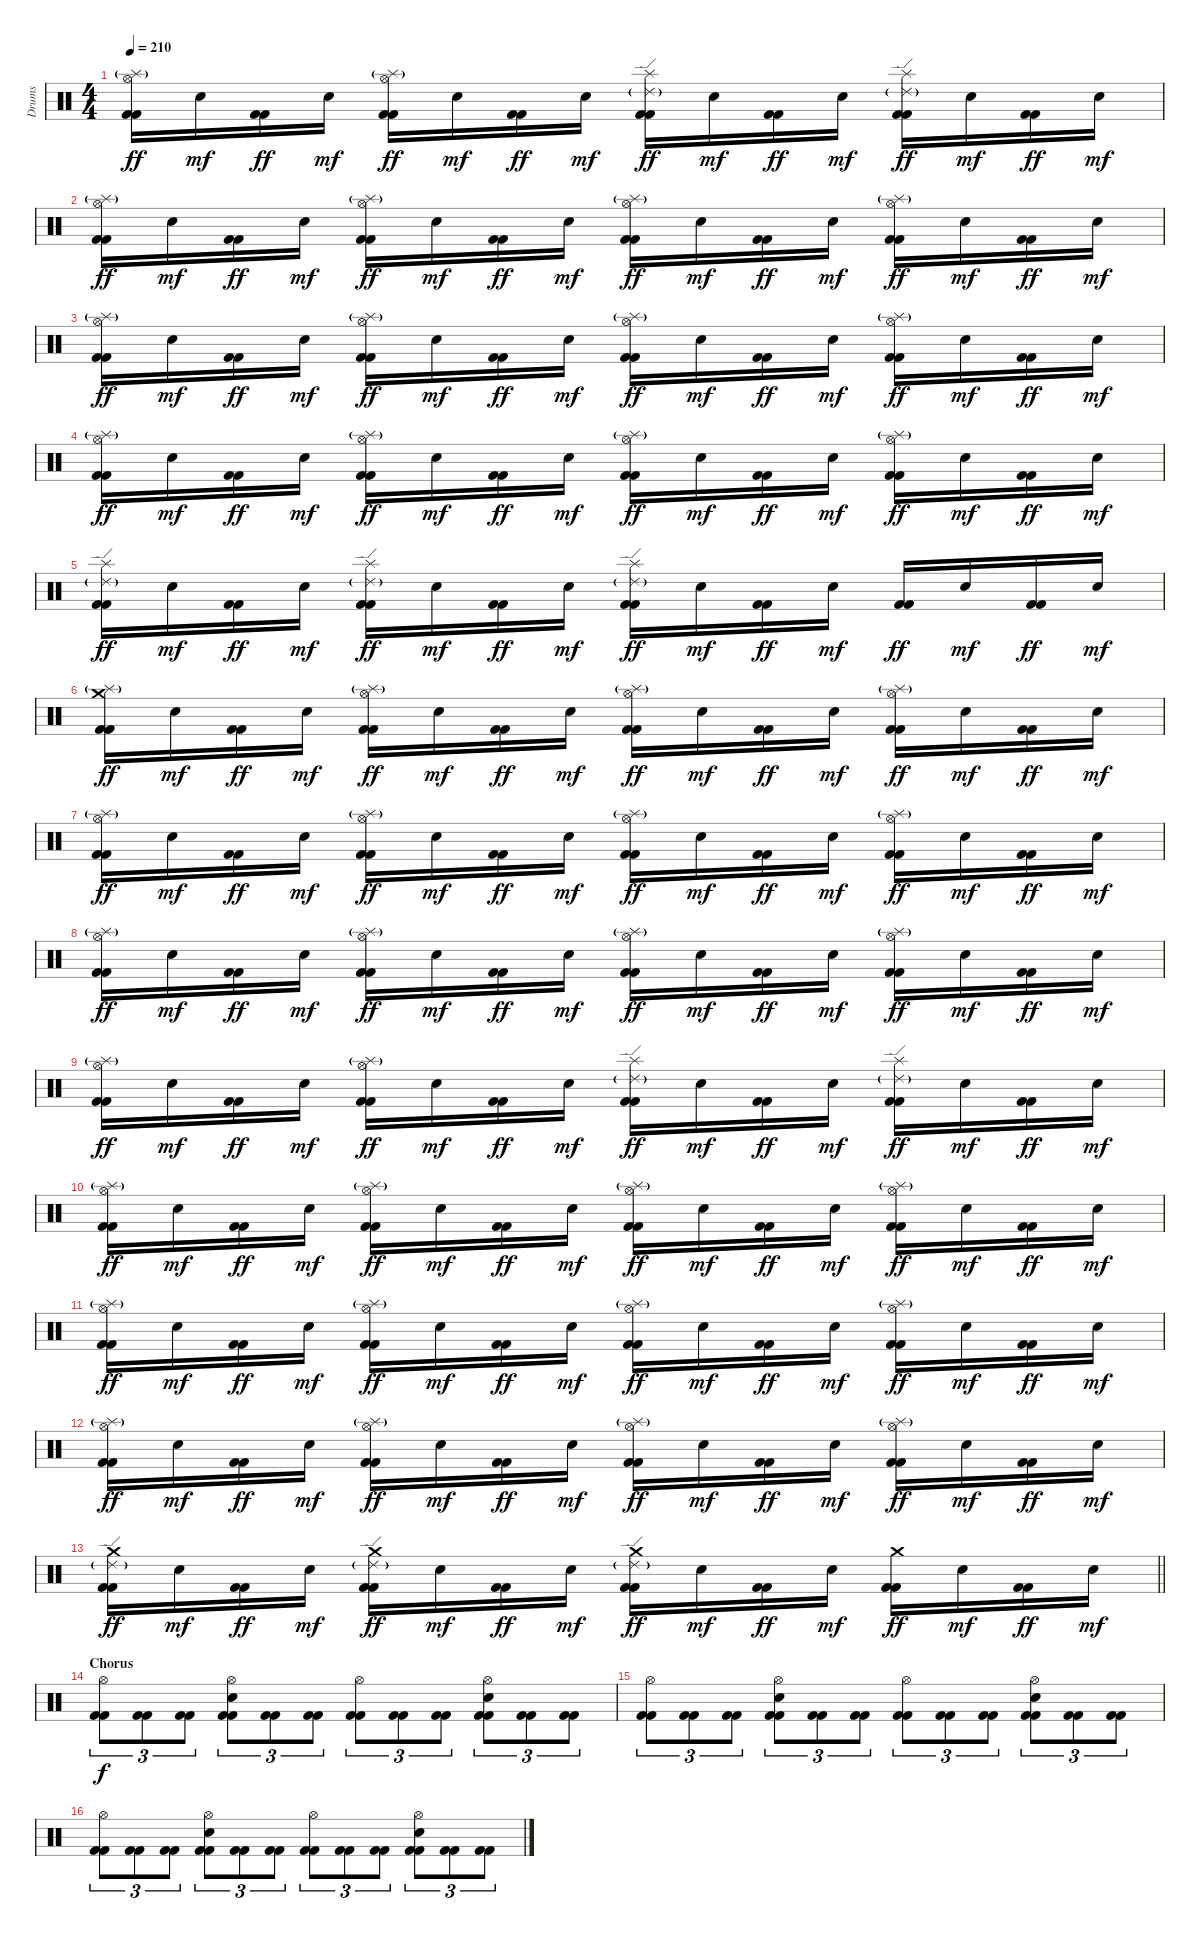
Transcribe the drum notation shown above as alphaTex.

\track ("Drums" "Drums") {instrument percussion}
\staff {score}
\articulation defaults
\ts (4 4)
\tempo 210
\clef neutral
\ks c
("Hi-Hat (open)" "Splash (hit)"{g} "Kick (hit) 2" "Kick (hit) 2").16{dy ff} "Snare (hit) 2".16{dy mf} ("Kick (hit) 2" "Kick (hit) 2").16{dy ff} "Snare (hit) 2".16{dy mf} ("Hi-Hat (open)" "Splash (hit)"{g} "Kick (hit) 2" "Kick (hit) 2").16{dy ff} "Snare (hit) 2".16{dy mf} ("Kick (hit) 2" "Kick (hit) 2").16{dy ff} "Snare (hit) 2".16{dy mf} ("Splash (hit)" "Ride (edge) 2"{g} "Kick (hit) 2" "Kick (hit) 2").16{dy ff} "Snare (hit) 2".16{dy mf} ("Kick (hit) 2" "Kick (hit) 2").16{dy ff} "Snare (hit) 2".16{dy mf} ("Splash (hit)" "Ride (edge) 2"{g} "Kick (hit) 2" "Kick (hit) 2").16{dy ff} "Snare (hit) 2".16{dy mf} ("Kick (hit) 2" "Kick (hit) 2").16{dy ff} "Snare (hit) 2".16{dy mf} |
("Hi-Hat (open)" "Splash (hit)"{g} "Kick (hit) 2" "Kick (hit) 2").16{dy ff} "Snare (hit) 2".16{dy mf} ("Kick (hit) 2" "Kick (hit) 2").16{dy ff} "Snare (hit) 2".16{dy mf} ("Hi-Hat (open)" "Splash (hit)"{g} "Kick (hit) 2" "Kick (hit) 2").16{dy ff} "Snare (hit) 2".16{dy mf} ("Kick (hit) 2" "Kick (hit) 2").16{dy ff} "Snare (hit) 2".16{dy mf} ("Hi-Hat (open)" "Splash (hit)"{g} "Kick (hit) 2" "Kick (hit) 2").16{dy ff} "Snare (hit) 2".16{dy mf} ("Kick (hit) 2" "Kick (hit) 2").16{dy ff} "Snare (hit) 2".16{dy mf} ("Hi-Hat (open)" "Splash (hit)"{g} "Kick (hit) 2" "Kick (hit) 2").16{dy ff} "Snare (hit) 2".16{dy mf} ("Kick (hit) 2" "Kick (hit) 2").16{dy ff} "Snare (hit) 2".16{dy mf} |
("Hi-Hat (open)" "Splash (hit)"{g} "Kick (hit) 2" "Kick (hit) 2").16{dy ff} "Snare (hit) 2".16{dy mf} ("Kick (hit) 2" "Kick (hit) 2").16{dy ff} "Snare (hit) 2".16{dy mf} ("Hi-Hat (open)" "Splash (hit)"{g} "Kick (hit) 2" "Kick (hit) 2").16{dy ff} "Snare (hit) 2".16{dy mf} ("Kick (hit) 2" "Kick (hit) 2").16{dy ff} "Snare (hit) 2".16{dy mf} ("Hi-Hat (open)" "Splash (hit)"{g} "Kick (hit) 2" "Kick (hit) 2").16{dy ff} "Snare (hit) 2".16{dy mf} ("Kick (hit) 2" "Kick (hit) 2").16{dy ff} "Snare (hit) 2".16{dy mf} ("Hi-Hat (open)" "Splash (hit)"{g} "Kick (hit) 2" "Kick (hit) 2").16{dy ff} "Snare (hit) 2".16{dy mf} ("Kick (hit) 2" "Kick (hit) 2").16{dy ff} "Snare (hit) 2".16{dy mf} |
("Hi-Hat (open)" "Splash (hit)"{g} "Kick (hit) 2" "Kick (hit) 2").16{dy ff} "Snare (hit) 2".16{dy mf} ("Kick (hit) 2" "Kick (hit) 2").16{dy ff} "Snare (hit) 2".16{dy mf} ("Hi-Hat (open)" "Splash (hit)"{g} "Kick (hit) 2" "Kick (hit) 2").16{dy ff} "Snare (hit) 2".16{dy mf} ("Kick (hit) 2" "Kick (hit) 2").16{dy ff} "Snare (hit) 2".16{dy mf} ("Hi-Hat (open)" "Splash (hit)"{g} "Kick (hit) 2" "Kick (hit) 2").16{dy ff} "Snare (hit) 2".16{dy mf} ("Kick (hit) 2" "Kick (hit) 2").16{dy ff} "Snare (hit) 2".16{dy mf} ("Hi-Hat (open)" "Splash (hit)"{g} "Kick (hit) 2" "Kick (hit) 2").16{dy ff} "Snare (hit) 2".16{dy mf} ("Kick (hit) 2" "Kick (hit) 2").16{dy ff} "Snare (hit) 2".16{dy mf} |
("Splash (hit)" "Ride (edge) 2"{g} "Kick (hit) 2" "Kick (hit) 2").16{dy ff} "Snare (hit) 2".16{dy mf} ("Kick (hit) 2" "Kick (hit) 2").16{dy ff} "Snare (hit) 2".16{dy mf} ("Splash (hit)" "Ride (edge) 2"{g} "Kick (hit) 2" "Kick (hit) 2").16{dy ff} "Snare (hit) 2".16{dy mf} ("Kick (hit) 2" "Kick (hit) 2").16{dy ff} "Snare (hit) 2".16{dy mf} ("Splash (hit)" "Ride (edge) 2"{g} "Kick (hit) 2" "Kick (hit) 2").16{dy ff} "Snare (hit) 2".16{dy mf} ("Kick (hit) 2" "Kick (hit) 2").16{dy ff} "Snare (hit) 2".16{dy mf} ("Kick (hit) 2" "Kick (hit) 2").16{dy ff} "Snare (hit) 2".16{dy mf} ("Kick (hit) 2" "Kick (hit) 2").16{dy ff} "Snare (hit) 2".16{dy mf} |
("Crash medium (hit)" "Splash (hit)"{g} "Kick (hit) 2" "Kick (hit) 2").16{dy ff} "Snare (hit) 2".16{dy mf} ("Kick (hit) 2" "Kick (hit) 2").16{dy ff} "Snare (hit) 2".16{dy mf} ("Hi-Hat (open)" "Splash (hit)"{g} "Kick (hit) 2" "Kick (hit) 2").16{dy ff} "Snare (hit) 2".16{dy mf} ("Kick (hit) 2" "Kick (hit) 2").16{dy ff} "Snare (hit) 2".16{dy mf} ("Hi-Hat (open)" "Splash (hit)"{g} "Kick (hit) 2" "Kick (hit) 2").16{dy ff} "Snare (hit) 2".16{dy mf} ("Kick (hit) 2" "Kick (hit) 2").16{dy ff} "Snare (hit) 2".16{dy mf} ("Hi-Hat (open)" "Splash (hit)"{g} "Kick (hit) 2" "Kick (hit) 2").16{dy ff} "Snare (hit) 2".16{dy mf} ("Kick (hit) 2" "Kick (hit) 2").16{dy ff} "Snare (hit) 2".16{dy mf} |
("Hi-Hat (open)" "Splash (hit)"{g} "Kick (hit) 2" "Kick (hit) 2").16{dy ff} "Snare (hit) 2".16{dy mf} ("Kick (hit) 2" "Kick (hit) 2").16{dy ff} "Snare (hit) 2".16{dy mf} ("Hi-Hat (open)" "Splash (hit)"{g} "Kick (hit) 2" "Kick (hit) 2").16{dy ff} "Snare (hit) 2".16{dy mf} ("Kick (hit) 2" "Kick (hit) 2").16{dy ff} "Snare (hit) 2".16{dy mf} ("Hi-Hat (open)" "Splash (hit)"{g} "Kick (hit) 2" "Kick (hit) 2").16{dy ff} "Snare (hit) 2".16{dy mf} ("Kick (hit) 2" "Kick (hit) 2").16{dy ff} "Snare (hit) 2".16{dy mf} ("Hi-Hat (open)" "Splash (hit)"{g} "Kick (hit) 2" "Kick (hit) 2").16{dy ff} "Snare (hit) 2".16{dy mf} ("Kick (hit) 2" "Kick (hit) 2").16{dy ff} "Snare (hit) 2".16{dy mf} |
("Hi-Hat (open)" "Splash (hit)"{g} "Kick (hit) 2" "Kick (hit) 2").16{dy ff} "Snare (hit) 2".16{dy mf} ("Kick (hit) 2" "Kick (hit) 2").16{dy ff} "Snare (hit) 2".16{dy mf} ("Hi-Hat (open)" "Splash (hit)"{g} "Kick (hit) 2" "Kick (hit) 2").16{dy ff} "Snare (hit) 2".16{dy mf} ("Kick (hit) 2" "Kick (hit) 2").16{dy ff} "Snare (hit) 2".16{dy mf} ("Hi-Hat (open)" "Splash (hit)"{g} "Kick (hit) 2" "Kick (hit) 2").16{dy ff} "Snare (hit) 2".16{dy mf} ("Kick (hit) 2" "Kick (hit) 2").16{dy ff} "Snare (hit) 2".16{dy mf} ("Hi-Hat (open)" "Splash (hit)"{g} "Kick (hit) 2" "Kick (hit) 2").16{dy ff} "Snare (hit) 2".16{dy mf} ("Kick (hit) 2" "Kick (hit) 2").16{dy ff} "Snare (hit) 2".16{dy mf} |
("Hi-Hat (open)" "Splash (hit)"{g} "Kick (hit) 2" "Kick (hit) 2").16{dy ff} "Snare (hit) 2".16{dy mf} ("Kick (hit) 2" "Kick (hit) 2").16{dy ff} "Snare (hit) 2".16{dy mf} ("Hi-Hat (open)" "Splash (hit)"{g} "Kick (hit) 2" "Kick (hit) 2").16{dy ff} "Snare (hit) 2".16{dy mf} ("Kick (hit) 2" "Kick (hit) 2").16{dy ff} "Snare (hit) 2".16{dy mf} ("Splash (hit)" "Ride (edge) 2"{g} "Kick (hit) 2" "Kick (hit) 2").16{dy ff} "Snare (hit) 2".16{dy mf} ("Kick (hit) 2" "Kick (hit) 2").16{dy ff} "Snare (hit) 2".16{dy mf} ("Splash (hit)" "Ride (edge) 2"{g} "Kick (hit) 2" "Kick (hit) 2").16{dy ff} "Snare (hit) 2".16{dy mf} ("Kick (hit) 2" "Kick (hit) 2").16{dy ff} "Snare (hit) 2".16{dy mf} |
("Hi-Hat (open)" "Splash (hit)"{g} "Kick (hit) 2" "Kick (hit) 2").16{dy ff} "Snare (hit) 2".16{dy mf} ("Kick (hit) 2" "Kick (hit) 2").16{dy ff} "Snare (hit) 2".16{dy mf} ("Hi-Hat (open)" "Splash (hit)"{g} "Kick (hit) 2" "Kick (hit) 2").16{dy ff} "Snare (hit) 2".16{dy mf} ("Kick (hit) 2" "Kick (hit) 2").16{dy ff} "Snare (hit) 2".16{dy mf} ("Hi-Hat (open)" "Splash (hit)"{g} "Kick (hit) 2" "Kick (hit) 2").16{dy ff} "Snare (hit) 2".16{dy mf} ("Kick (hit) 2" "Kick (hit) 2").16{dy ff} "Snare (hit) 2".16{dy mf} ("Hi-Hat (open)" "Splash (hit)"{g} "Kick (hit) 2" "Kick (hit) 2").16{dy ff} "Snare (hit) 2".16{dy mf} ("Kick (hit) 2" "Kick (hit) 2").16{dy ff} "Snare (hit) 2".16{dy mf} |
("Hi-Hat (open)" "Splash (hit)"{g} "Kick (hit) 2" "Kick (hit) 2").16{dy ff} "Snare (hit) 2".16{dy mf} ("Kick (hit) 2" "Kick (hit) 2").16{dy ff} "Snare (hit) 2".16{dy mf} ("Hi-Hat (open)" "Splash (hit)"{g} "Kick (hit) 2" "Kick (hit) 2").16{dy ff} "Snare (hit) 2".16{dy mf} ("Kick (hit) 2" "Kick (hit) 2").16{dy ff} "Snare (hit) 2".16{dy mf} ("Hi-Hat (open)" "Splash (hit)"{g} "Kick (hit) 2" "Kick (hit) 2").16{dy ff} "Snare (hit) 2".16{dy mf} ("Kick (hit) 2" "Kick (hit) 2").16{dy ff} "Snare (hit) 2".16{dy mf} ("Hi-Hat (open)" "Splash (hit)"{g} "Kick (hit) 2" "Kick (hit) 2").16{dy ff} "Snare (hit) 2".16{dy mf} ("Kick (hit) 2" "Kick (hit) 2").16{dy ff} "Snare (hit) 2".16{dy mf} |
("Hi-Hat (open)" "Splash (hit)"{g} "Kick (hit) 2" "Kick (hit) 2").16{dy ff} "Snare (hit) 2".16{dy mf} ("Kick (hit) 2" "Kick (hit) 2").16{dy ff} "Snare (hit) 2".16{dy mf} ("Hi-Hat (open)" "Splash (hit)"{g} "Kick (hit) 2" "Kick (hit) 2").16{dy ff} "Snare (hit) 2".16{dy mf} ("Kick (hit) 2" "Kick (hit) 2").16{dy ff} "Snare (hit) 2".16{dy mf} ("Hi-Hat (open)" "Splash (hit)"{g} "Kick (hit) 2" "Kick (hit) 2").16{dy ff} "Snare (hit) 2".16{dy mf} ("Kick (hit) 2" "Kick (hit) 2").16{dy ff} "Snare (hit) 2".16{dy mf} ("Hi-Hat (open)" "Splash (hit)"{g} "Kick (hit) 2" "Kick (hit) 2").16{dy ff} "Snare (hit) 2".16{dy mf} ("Kick (hit) 2" "Kick (hit) 2").16{dy ff} "Snare (hit) 2".16{dy mf} |
\barLineRight lightlight
("Crash medium (hit)" "Ride (edge) 2"{g} "Kick (hit) 2" "Kick (hit) 2").16{dy ff} "Snare (hit) 2".16{dy mf} ("Kick (hit) 2" "Kick (hit) 2").16{dy ff} "Snare (hit) 2".16{dy mf} ("Crash medium (hit)" "Ride (edge) 2"{g} "Kick (hit) 2" "Kick (hit) 2").16{dy ff} "Snare (hit) 2".16{dy mf} ("Kick (hit) 2" "Kick (hit) 2").16{dy ff} "Snare (hit) 2".16{dy mf} ("Crash medium (hit)" "Ride (edge) 2"{g} "Kick (hit) 2" "Kick (hit) 2").16{dy ff} "Snare (hit) 2".16{dy mf} ("Kick (hit) 2" "Kick (hit) 2").16{dy ff} "Snare (hit) 2".16{dy mf} ("Crash medium (hit)" "Kick (hit) 2" "Kick (hit) 2").16{dy ff} "Snare (hit) 2".16{dy mf} ("Kick (hit) 2" "Kick (hit) 2").16{dy ff} "Snare (hit) 2".16{dy mf} |
\section ("" "Chorus")
("Hi-Hat (open)" "Kick (hit) 2" "Kick (hit) 2").8{tu (3 2) dy f} ("Kick (hit) 2" "Kick (hit) 2").8{tu (3 2)} ("Kick (hit) 2" "Kick (hit) 2").8{tu (3 2)} ("Hi-Hat (open)" "Snare (hit) 2" "Kick (hit) 2" "Kick (hit) 2").8{tu (3 2)} ("Kick (hit) 2" "Kick (hit) 2").8{tu (3 2)} ("Kick (hit) 2" "Kick (hit) 2").8{tu (3 2)} ("Hi-Hat (open)" "Kick (hit) 2" "Kick (hit) 2").8{tu (3 2)} ("Kick (hit) 2" "Kick (hit) 2").8{tu (3 2)} ("Kick (hit) 2" "Kick (hit) 2").8{tu (3 2)} ("Hi-Hat (open)" "Snare (hit) 2" "Kick (hit) 2" "Kick (hit) 2").8{tu (3 2)} ("Kick (hit) 2" "Kick (hit) 2").8{tu (3 2)} ("Kick (hit) 2" "Kick (hit) 2").8{tu (3 2)} |
("Hi-Hat (open)" "Kick (hit) 2" "Kick (hit) 2").8{tu (3 2)} ("Kick (hit) 2" "Kick (hit) 2").8{tu (3 2)} ("Kick (hit) 2" "Kick (hit) 2").8{tu (3 2)} ("Hi-Hat (open)" "Snare (hit) 2" "Kick (hit) 2" "Kick (hit) 2").8{tu (3 2)} ("Kick (hit) 2" "Kick (hit) 2").8{tu (3 2)} ("Kick (hit) 2" "Kick (hit) 2").8{tu (3 2)} ("Hi-Hat (open)" "Kick (hit) 2" "Kick (hit) 2").8{tu (3 2)} ("Kick (hit) 2" "Kick (hit) 2").8{tu (3 2)} ("Kick (hit) 2" "Kick (hit) 2").8{tu (3 2)} ("Hi-Hat (open)" "Snare (hit) 2" "Kick (hit) 2" "Kick (hit) 2").8{tu (3 2)} ("Kick (hit) 2" "Kick (hit) 2").8{tu (3 2)} ("Kick (hit) 2" "Kick (hit) 2").8{tu (3 2)} |
("Hi-Hat (open)" "Kick (hit) 2" "Kick (hit) 2").8{tu (3 2)} ("Kick (hit) 2" "Kick (hit) 2").8{tu (3 2)} ("Kick (hit) 2" "Kick (hit) 2").8{tu (3 2)} ("Hi-Hat (open)" "Snare (hit) 2" "Kick (hit) 2" "Kick (hit) 2").8{tu (3 2)} ("Kick (hit) 2" "Kick (hit) 2").8{tu (3 2)} ("Kick (hit) 2" "Kick (hit) 2").8{tu (3 2)} ("Hi-Hat (open)" "Kick (hit) 2" "Kick (hit) 2").8{tu (3 2)} ("Kick (hit) 2" "Kick (hit) 2").8{tu (3 2)} ("Kick (hit) 2" "Kick (hit) 2").8{tu (3 2)} ("Hi-Hat (open)" "Snare (hit) 2" "Kick (hit) 2" "Kick (hit) 2").8{tu (3 2)} ("Kick (hit) 2" "Kick (hit) 2").8{tu (3 2)} ("Kick (hit) 2" "Kick (hit) 2").8{tu (3 2)}
